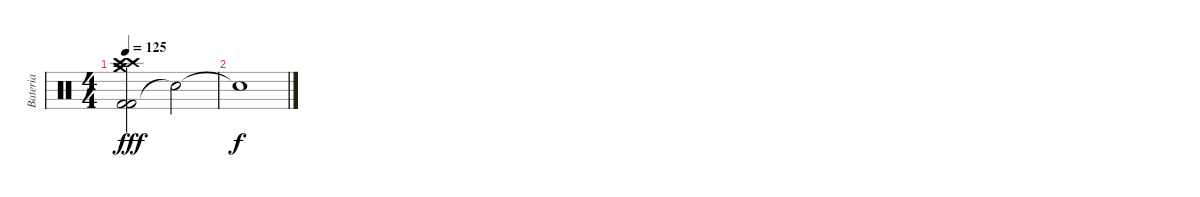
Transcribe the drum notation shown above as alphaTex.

\track ("Bateria" "Bateria") {instrument percussion}
\staff {score}
\articulation defaults
\ts (4 4)
\tempo 125
\clef neutral
\ks c
("Kick (hit) 2"{t} "Crash high (hit)"{t} "Crash medium (hit)"{t} "Kick (hit) 2"{t} "Crash medium (hit)"{t} "Crash high (hit)"{t}).2{dy fff} "Snare (hit)"{t}.2 |
"Snare (hit)"{t}.1{dy f}
